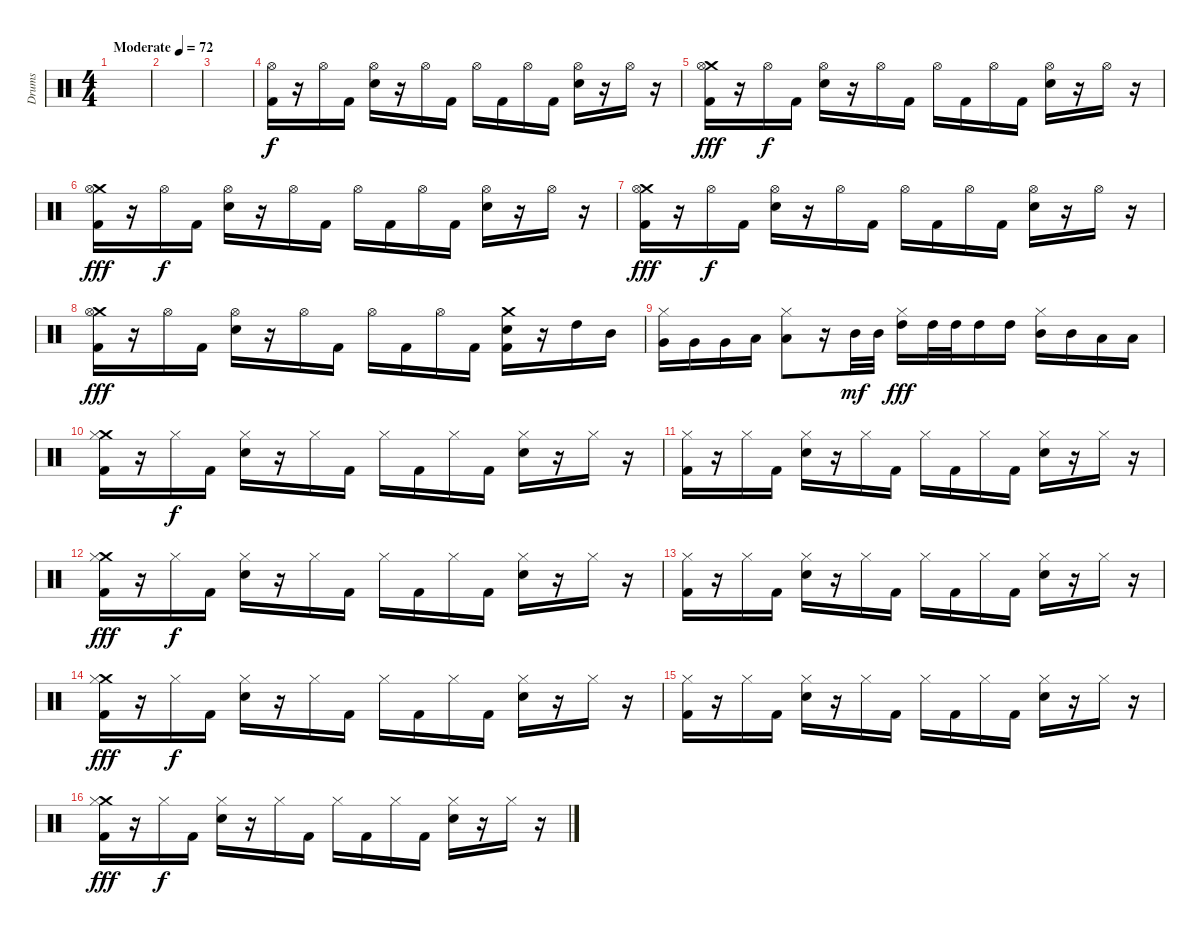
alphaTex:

\track ("Drums" "Drums") {instrument percussion}
\staff {score}
\articulation defaults
\ts (4 4)
\tempo (72 "Moderate")
\clef neutral
\ks c
|
|
|
("Hi-Hat (open)" "Kick (hit) 2").16 r.16 "Hi-Hat (open)".16 "Kick (hit) 2".16 ("Hi-Hat (open)" "Snare (hit) 2").16 r.16 "Hi-Hat (open)".16 "Kick (hit) 2".16 "Hi-Hat (open)".16 "Kick (hit) 2".16 "Hi-Hat (open)".16 "Kick (hit) 2".16 ("Hi-Hat (open)" "Snare (hit) 2").16 r.16 "Hi-Hat (open)".16 r.16 |
("Crash medium (hit)" "Hi-Hat (open)" "Kick (hit) 2").16{dy fff} r.16 "Hi-Hat (open)".16{dy f} "Kick (hit) 2".16 ("Hi-Hat (open)" "Snare (hit) 2").16 r.16 "Hi-Hat (open)".16 "Kick (hit) 2".16 "Hi-Hat (open)".16 "Kick (hit) 2".16 "Hi-Hat (open)".16 "Kick (hit) 2".16 ("Hi-Hat (open)" "Snare (hit) 2").16 r.16 "Hi-Hat (open)".16 r.16 |
("Crash medium (hit)" "Hi-Hat (open)" "Kick (hit) 2").16{dy fff} r.16 "Hi-Hat (open)".16{dy f} "Kick (hit) 2".16 ("Hi-Hat (open)" "Snare (hit) 2").16 r.16 "Hi-Hat (open)".16 "Kick (hit) 2".16 "Hi-Hat (open)".16 "Kick (hit) 2".16 "Hi-Hat (open)".16 "Kick (hit) 2".16 ("Hi-Hat (open)" "Snare (hit) 2").16 r.16 "Hi-Hat (open)".16 r.16 |
("Crash medium (hit)" "Hi-Hat (open)" "Kick (hit) 2").16{dy fff} r.16 "Hi-Hat (open)".16{dy f} "Kick (hit) 2".16 ("Hi-Hat (open)" "Snare (hit) 2").16 r.16 "Hi-Hat (open)".16 "Kick (hit) 2".16 "Hi-Hat (open)".16 "Kick (hit) 2".16 "Hi-Hat (open)".16 "Kick (hit) 2".16 ("Hi-Hat (open)" "Snare (hit) 2").16 r.16 "Hi-Hat (open)".16 r.16 |
("Crash medium (hit)" "Hi-Hat (open)" "Kick (hit) 2").16{dy fff} r.16 "Hi-Hat (open)".16 "Kick (hit) 2".16 ("Hi-Hat (open)" "Snare (hit) 2").16 r.16 "Hi-Hat (open)".16 "Kick (hit) 2".16 "Hi-Hat (open)".16 "Kick (hit) 2".16 "Hi-Hat (open)".16 "Kick (hit) 2".16 ("Crash medium (hit)" "Snare (hit) 2" "Kick (hit) 2").16 r.16 "High Tom (hit)".16 "Mid Tom (hit)".16 |
("Hi-Hat (closed)" "Very Low Tom (hit)").16 "Very Low Tom (hit)".16 "Very Low Tom (hit)".16 "Low Floor Tom (hit)".16 ("Hi-Hat (closed)" "Low Floor Tom (hit)").8 r.16 "Mid Tom (hit)".32{dy mf} "Mid Tom (hit)".32 ("Hi-Hat (closed)" "High Tom (hit)").16{dy fff} "High Tom (hit)".32 "High Tom (hit)".32 "High Tom (hit)".16 "High Tom (hit)".16 ("Hi-Hat (closed)" "Mid Tom (hit)").16 "Mid Tom (hit)".16 "Low Tom (hit)".16 "Low Tom (hit)".16 |
("Crash medium (hit)" "Hi-Hat (closed)" "Kick (hit) 2").16 r.16 "Hi-Hat (closed)".16{dy f} "Kick (hit) 2".16 ("Hi-Hat (closed)" "Snare (hit) 2").16 r.16 "Hi-Hat (closed)".16 "Kick (hit) 2".16 "Hi-Hat (closed)".16 "Kick (hit) 2".16 "Hi-Hat (closed)".16 "Kick (hit) 2".16 ("Hi-Hat (closed)" "Snare (hit) 2").16 r.16 "Hi-Hat (closed)".16 r.16 |
("Hi-Hat (closed)" "Kick (hit) 2").16 r.16 "Hi-Hat (closed)".16 "Kick (hit) 2".16 ("Hi-Hat (closed)" "Snare (hit) 2").16 r.16 "Hi-Hat (closed)".16 "Kick (hit) 2".16 "Hi-Hat (closed)".16 "Kick (hit) 2".16 "Hi-Hat (closed)".16 "Kick (hit) 2".16 ("Hi-Hat (closed)" "Snare (hit) 2").16 r.16 "Hi-Hat (closed)".16 r.16 |
("Crash medium (hit)" "Hi-Hat (closed)" "Kick (hit) 2").16{dy fff} r.16 "Hi-Hat (closed)".16{dy f} "Kick (hit) 2".16 ("Hi-Hat (closed)" "Snare (hit) 2").16 r.16 "Hi-Hat (closed)".16 "Kick (hit) 2".16 "Hi-Hat (closed)".16 "Kick (hit) 2".16 "Hi-Hat (closed)".16 "Kick (hit) 2".16 ("Hi-Hat (closed)" "Snare (hit) 2").16 r.16 "Hi-Hat (closed)".16 r.16 |
("Hi-Hat (closed)" "Kick (hit) 2").16 r.16 "Hi-Hat (closed)".16 "Kick (hit) 2".16 ("Hi-Hat (closed)" "Snare (hit) 2").16 r.16 "Hi-Hat (closed)".16 "Kick (hit) 2".16 "Hi-Hat (closed)".16 "Kick (hit) 2".16 "Hi-Hat (closed)".16 "Kick (hit) 2".16 ("Hi-Hat (closed)" "Snare (hit) 2").16 r.16 "Hi-Hat (closed)".16 r.16 |
("Crash medium (hit)" "Hi-Hat (closed)" "Kick (hit) 2").16{dy fff} r.16 "Hi-Hat (closed)".16{dy f} "Kick (hit) 2".16 ("Hi-Hat (closed)" "Snare (hit) 2").16 r.16 "Hi-Hat (closed)".16 "Kick (hit) 2".16 "Hi-Hat (closed)".16 "Kick (hit) 2".16 "Hi-Hat (closed)".16 "Kick (hit) 2".16 ("Hi-Hat (closed)" "Snare (hit) 2").16 r.16 "Hi-Hat (closed)".16 r.16 |
("Hi-Hat (closed)" "Kick (hit) 2").16 r.16 "Hi-Hat (closed)".16 "Kick (hit) 2".16 ("Hi-Hat (closed)" "Snare (hit) 2").16 r.16 "Hi-Hat (closed)".16 "Kick (hit) 2".16 "Hi-Hat (closed)".16 "Kick (hit) 2".16 "Hi-Hat (closed)".16 "Kick (hit) 2".16 ("Hi-Hat (closed)" "Snare (hit) 2").16 r.16 "Hi-Hat (closed)".16 r.16 |
("Crash medium (hit)" "Hi-Hat (closed)" "Kick (hit) 2").16{dy fff} r.16 "Hi-Hat (closed)".16{dy f} "Kick (hit) 2".16 ("Hi-Hat (closed)" "Snare (hit) 2").16 r.16 "Hi-Hat (closed)".16 "Kick (hit) 2".16 "Hi-Hat (closed)".16 "Kick (hit) 2".16 "Hi-Hat (closed)".16 "Kick (hit) 2".16 ("Hi-Hat (closed)" "Snare (hit) 2").16 r.16 "Hi-Hat (closed)".16 r.16
